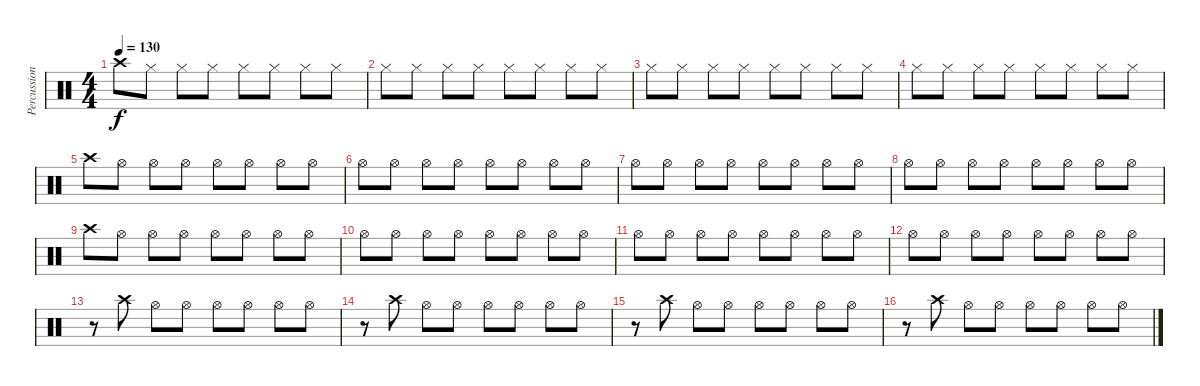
\track ("Percussion" "Percussion") {instrument percussion}
\staff {score}
\articulation defaults
\ts (4 4)
\tempo 130
\clef neutral
\ks c "Crash high (hit)".8{dy f} "Hi-Hat (closed)".8 "Hi-Hat (closed)".8 "Hi-Hat (closed)".8 "Hi-Hat (closed)".8 "Hi-Hat (closed)".8 "Hi-Hat (closed)".8 "Hi-Hat (closed)".8
|
"Hi-Hat (closed)".8 "Hi-Hat (closed)".8 "Hi-Hat (closed)".8 "Hi-Hat (closed)".8 "Hi-Hat (closed)".8 "Hi-Hat (closed)".8 "Hi-Hat (closed)".8 "Hi-Hat (closed)".8 |
"Hi-Hat (closed)".8 "Hi-Hat (closed)".8 "Hi-Hat (closed)".8 "Hi-Hat (closed)".8 "Hi-Hat (closed)".8 "Hi-Hat (closed)".8 "Hi-Hat (closed)".8 "Hi-Hat (closed)".8 |
"Hi-Hat (closed)".8 "Hi-Hat (closed)".8 "Hi-Hat (closed)".8 "Hi-Hat (closed)".8 "Hi-Hat (closed)".8 "Hi-Hat (closed)".8 "Hi-Hat (closed)".8 "Hi-Hat (closed)".8 |
"Crash high (hit)".8 "Hi-Hat (open)".8 "Hi-Hat (open)".8 "Hi-Hat (open)".8 "Hi-Hat (open)".8 "Hi-Hat (open)".8 "Hi-Hat (open)".8 "Hi-Hat (open)".8 |
"Hi-Hat (open)".8 "Hi-Hat (open)".8 "Hi-Hat (open)".8 "Hi-Hat (open)".8 "Hi-Hat (open)".8 "Hi-Hat (open)".8 "Hi-Hat (open)".8 "Hi-Hat (open)".8 |
"Hi-Hat (open)".8 "Hi-Hat (open)".8 "Hi-Hat (open)".8 "Hi-Hat (open)".8 "Hi-Hat (open)".8 "Hi-Hat (open)".8 "Hi-Hat (open)".8 "Hi-Hat (open)".8 |
"Hi-Hat (open)".8 "Hi-Hat (open)".8 "Hi-Hat (open)".8 "Hi-Hat (open)".8 "Hi-Hat (open)".8 "Hi-Hat (open)".8 "Hi-Hat (open)".8 "Hi-Hat (open)".8 |
"Crash high (hit)".8 "Hi-Hat (open)".8 "Hi-Hat (open)".8 "Hi-Hat (open)".8 "Hi-Hat (open)".8 "Hi-Hat (open)".8 "Hi-Hat (open)".8 "Hi-Hat (open)".8 |
"Hi-Hat (open)".8 "Hi-Hat (open)".8 "Hi-Hat (open)".8 "Hi-Hat (open)".8 "Hi-Hat (open)".8 "Hi-Hat (open)".8 "Hi-Hat (open)".8 "Hi-Hat (open)".8 |
"Hi-Hat (open)".8 "Hi-Hat (open)".8 "Hi-Hat (open)".8 "Hi-Hat (open)".8 "Hi-Hat (open)".8 "Hi-Hat (open)".8 "Hi-Hat (open)".8 "Hi-Hat (open)".8 |
"Hi-Hat (open)".8 "Hi-Hat (open)".8 "Hi-Hat (open)".8 "Hi-Hat (open)".8 "Hi-Hat (open)".8 "Hi-Hat (open)".8 "Hi-Hat (open)".8 "Hi-Hat (open)".8 |
r.8 "Crash high (hit)".8 "Hi-Hat (open)".8 "Hi-Hat (open)".8 "Hi-Hat (open)".8 "Hi-Hat (open)".8 "Hi-Hat (open)".8 "Hi-Hat (open)".8 |
r.8 "Crash high (hit)".8 "Hi-Hat (open)".8 "Hi-Hat (open)".8 "Hi-Hat (open)".8 "Hi-Hat (open)".8 "Hi-Hat (open)".8 "Hi-Hat (open)".8 |
r.8 "Crash high (hit)".8 "Hi-Hat (open)".8 "Hi-Hat (open)".8 "Hi-Hat (open)".8 "Hi-Hat (open)".8 "Hi-Hat (open)".8 "Hi-Hat (open)".8 |
r.8 "Crash high (hit)".8 "Hi-Hat (open)".8 "Hi-Hat (open)".8 "Hi-Hat (open)".8 "Hi-Hat (open)".8 "Hi-Hat (open)".8 "Hi-Hat (open)".8
